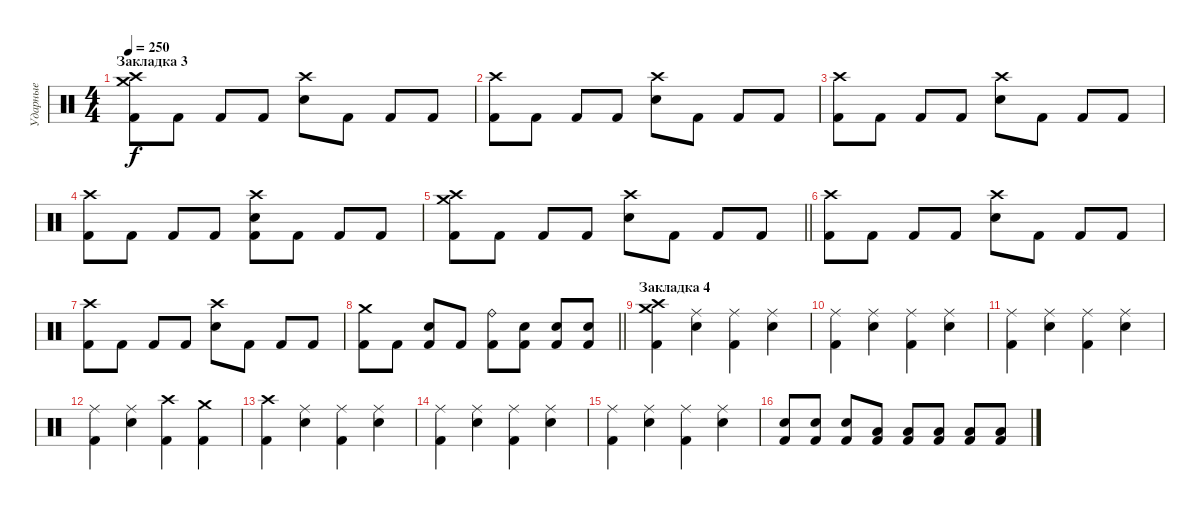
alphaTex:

\track ("Ударные" "Ударные") {instrument percussion}
\staff {score}
\articulation defaults
\ts (4 4)
\section ("" "Закладка 3")
\tempo 250
\clef neutral
\ks c
("Crash medium (hit)" "Crash high (hit)" "Kick (hit) 2").8{dy f} "Kick (hit) 2".8 "Kick (hit) 2".8 "Kick (hit) 2".8 ("Crash high (hit)" "Electric Snare (hit)").8 "Kick (hit) 2".8 "Kick (hit) 2".8 "Kick (hit) 2".8 |
("Crash high (hit)" "Kick (hit) 2").8 "Kick (hit) 2".8 "Kick (hit) 2".8 "Kick (hit) 2".8 ("Crash high (hit)" "Electric Snare (hit)").8 "Kick (hit) 2".8 "Kick (hit) 2".8 "Kick (hit) 2".8 |
("Crash high (hit)" "Kick (hit) 2").8 "Kick (hit) 2".8 "Kick (hit) 2".8 "Kick (hit) 2".8 ("Crash high (hit)" "Electric Snare (hit)").8 "Kick (hit) 2".8 "Kick (hit) 2".8 "Kick (hit) 2".8 |
("Crash high (hit)" "Kick (hit) 2").8 "Kick (hit) 2".8 "Kick (hit) 2".8 "Kick (hit) 2".8 ("Crash high (hit)" "Electric Snare (hit)" "Kick (hit) 2").8 "Kick (hit) 2".8 "Kick (hit) 2".8 "Kick (hit) 2".8 |
\barLineRight lightlight
("Crash medium (hit)" "Crash high (hit)" "Kick (hit) 2").8 "Kick (hit) 2".8 "Kick (hit) 2".8 "Kick (hit) 2".8 ("Crash high (hit)" "Electric Snare (hit)").8 "Kick (hit) 2".8 "Kick (hit) 2".8 "Kick (hit) 2".8 |
("Crash high (hit)" "Kick (hit) 2").8 "Kick (hit) 2".8 "Kick (hit) 2".8 "Kick (hit) 2".8 ("Crash high (hit)" "Electric Snare (hit)").8 "Kick (hit) 2".8 "Kick (hit) 2".8 "Kick (hit) 2".8 |
("Crash high (hit)" "Kick (hit) 2").8 "Kick (hit) 2".8 "Kick (hit) 2".8 "Kick (hit) 2".8 ("Crash high (hit)" "Electric Snare (hit)").8 "Kick (hit) 2".8 "Kick (hit) 2".8 "Kick (hit) 2".8 |
\barLineRight lightlight
("Crash medium (hit)" "Kick (hit) 2").8 "Kick (hit) 2".8 ("Electric Snare (hit)" "Kick (hit) 2").8 "Kick (hit) 2".8 ("Ride (bell)" "Kick (hit) 2").8 ("Electric Snare (hit)" "Kick (hit) 2").8 ("Electric Snare (hit)" "Kick (hit) 2").8 ("Electric Snare (hit)" "Kick (hit) 2").8 |
\section ("" "Закладка 4")
("Crash medium (hit)" "Crash high (hit)" "Kick (hit) 2").4 ("Ride (middle)" "Electric Snare (hit)").4 ("Ride (middle)" "Kick (hit) 2").4 ("Ride (middle)" "Electric Snare (hit)").4 |
("Ride (middle)" "Kick (hit) 2").4 ("Ride (middle)" "Electric Snare (hit)").4 ("Ride (middle)" "Kick (hit) 2").4 ("Ride (middle)" "Electric Snare (hit)").4 |
("Ride (middle)" "Kick (hit) 2").4 ("Ride (middle)" "Electric Snare (hit)").4 ("Ride (middle)" "Kick (hit) 2").4 ("Ride (middle)" "Electric Snare (hit)").4 |
("Ride (middle)" "Kick (hit) 2").4 ("Ride (middle)" "Electric Snare (hit)").4 ("Crash high (hit)" "Kick (hit) 2").4 ("Crash medium (hit)" "Kick (hit) 2").4 |
("Crash high (hit)" "Kick (hit) 2").4 ("Ride (middle)" "Electric Snare (hit)").4 ("Ride (middle)" "Kick (hit) 2").4 ("Ride (middle)" "Electric Snare (hit)").4 |
("Ride (middle)" "Kick (hit) 2").4 ("Ride (middle)" "Electric Snare (hit)").4 ("Ride (middle)" "Kick (hit) 2").4 ("Ride (middle)" "Electric Snare (hit)").4 |
("Ride (middle)" "Kick (hit) 2").4 ("Ride (middle)" "Electric Snare (hit)").4 ("Ride (middle)" "Kick (hit) 2").4 ("Ride (middle)" "Electric Snare (hit)").4 |
("Electric Snare (hit)" "Kick (hit) 2").8 ("Electric Snare (hit)" "Kick (hit) 2").8 ("Electric Snare (hit)" "Kick (hit) 2").8 ("Low Tom (hit)" "Kick (hit) 2").8 ("Low Tom (hit)" "Kick (hit) 2").8 ("Low Floor Tom (hit)" "Kick (hit) 2").8 ("Low Floor Tom (hit)" "Kick (hit) 2").8 ("Low Floor Tom (hit)" "Kick (hit) 2").8
